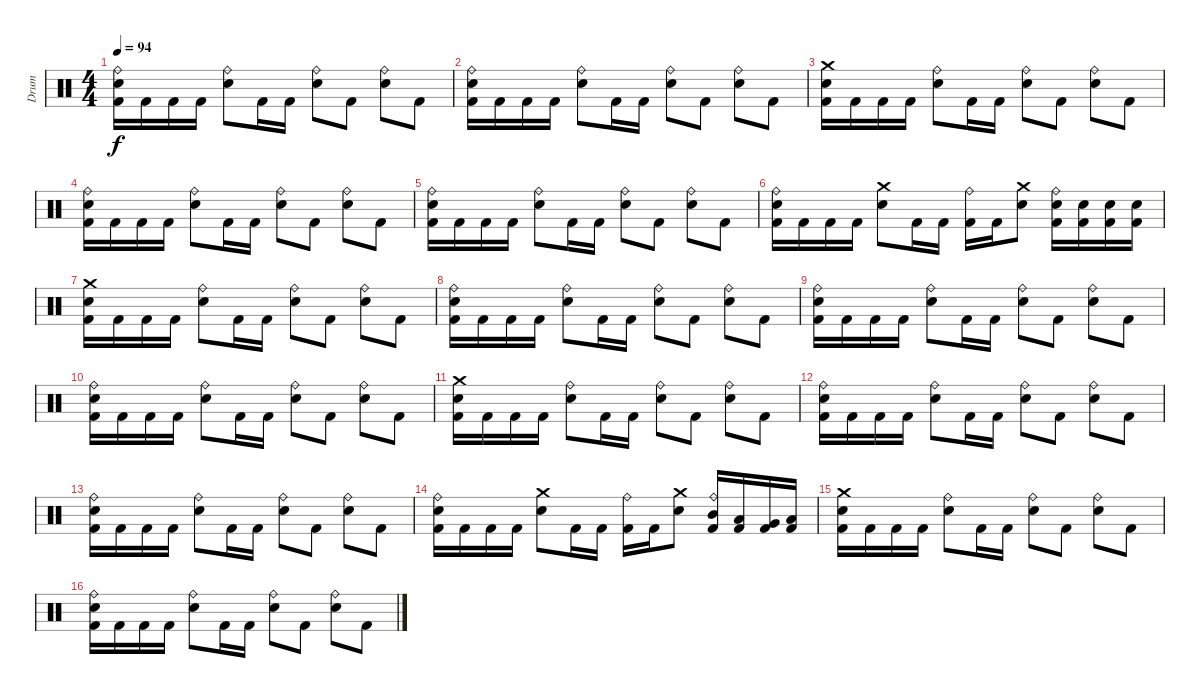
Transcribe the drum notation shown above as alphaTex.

\track ("Drum" "Drum") {instrument percussion}
\staff {score}
\articulation defaults
\ts (4 4)
\tempo 94
\clef neutral
\ks c
("Kick (hit) 2" "Electric Snare (hit)" "Ride (bell)").16{dy f} "Kick (hit) 2".16 "Kick (hit) 2".16 "Kick (hit) 2".16 ("Electric Snare (hit)" "Ride (bell)").8 "Kick (hit) 2".16 "Kick (hit) 2".16 ("Electric Snare (hit)" "Ride (bell)").8 "Kick (hit) 2".8 ("Electric Snare (hit)" "Ride (bell)").8 "Kick (hit) 2".8 |
("Kick (hit) 2" "Electric Snare (hit)" "Ride (bell)").16 "Kick (hit) 2".16 "Kick (hit) 2".16 "Kick (hit) 2".16 ("Electric Snare (hit)" "Ride (bell)").8 "Kick (hit) 2".16 "Kick (hit) 2".16 ("Electric Snare (hit)" "Ride (bell)").8 "Kick (hit) 2".8 ("Electric Snare (hit)" "Ride (bell)").8 "Kick (hit) 2".8 |
("Kick (hit) 2" "Electric Snare (hit)" "Crash medium (hit)").16 "Kick (hit) 2".16 "Kick (hit) 2".16 "Kick (hit) 2".16 ("Electric Snare (hit)" "Ride (bell)").8 "Kick (hit) 2".16 "Kick (hit) 2".16 ("Electric Snare (hit)" "Ride (bell)").8 "Kick (hit) 2".8 ("Electric Snare (hit)" "Ride (bell)").8 "Kick (hit) 2".8 |
("Kick (hit) 2" "Electric Snare (hit)" "Ride (bell)").16 "Kick (hit) 2".16 "Kick (hit) 2".16 "Kick (hit) 2".16 ("Electric Snare (hit)" "Ride (bell)").8 "Kick (hit) 2".16 "Kick (hit) 2".16 ("Electric Snare (hit)" "Ride (bell)").8 "Kick (hit) 2".8 ("Electric Snare (hit)" "Ride (bell)").8 "Kick (hit) 2".8 |
("Kick (hit) 2" "Electric Snare (hit)" "Ride (bell)").16 "Kick (hit) 2".16 "Kick (hit) 2".16 "Kick (hit) 2".16 ("Electric Snare (hit)" "Ride (bell)").8 "Kick (hit) 2".16 "Kick (hit) 2".16 ("Electric Snare (hit)" "Ride (bell)").8 "Kick (hit) 2".8 ("Electric Snare (hit)" "Ride (bell)").8 "Kick (hit) 2".8 |
("Kick (hit) 2" "Electric Snare (hit)" "Ride (bell)").16 "Kick (hit) 2".16 "Kick (hit) 2".16 "Kick (hit) 2".16 ("Electric Snare (hit)" "Crash medium (hit)").8 "Kick (hit) 2".16 "Kick (hit) 2".16 ("Kick (hit) 2" "Ride (bell)").16 "Kick (hit) 2".16 ("Electric Snare (hit)" "Crash medium (hit)").8 ("Kick (hit) 2" "Electric Snare (hit)" "Ride (bell)").16 ("Kick (hit) 2" "Electric Snare (hit)").16 ("Kick (hit) 2" "Electric Snare (hit)").16 ("Kick (hit) 2" "Electric Snare (hit)").16 |
("Kick (hit) 2" "Electric Snare (hit)" "Crash medium (hit)").16 "Kick (hit) 2".16 "Kick (hit) 2".16 "Kick (hit) 2".16 ("Electric Snare (hit)" "Ride (bell)").8 "Kick (hit) 2".16 "Kick (hit) 2".16 ("Electric Snare (hit)" "Ride (bell)").8 "Kick (hit) 2".8 ("Electric Snare (hit)" "Ride (bell)").8 "Kick (hit) 2".8 |
("Kick (hit) 2" "Electric Snare (hit)" "Ride (bell)").16 "Kick (hit) 2".16 "Kick (hit) 2".16 "Kick (hit) 2".16 ("Electric Snare (hit)" "Ride (bell)").8 "Kick (hit) 2".16 "Kick (hit) 2".16 ("Electric Snare (hit)" "Ride (bell)").8 "Kick (hit) 2".8 ("Electric Snare (hit)" "Ride (bell)").8 "Kick (hit) 2".8 |
("Kick (hit) 2" "Electric Snare (hit)" "Ride (bell)").16 "Kick (hit) 2".16 "Kick (hit) 2".16 "Kick (hit) 2".16 ("Electric Snare (hit)" "Ride (bell)").8 "Kick (hit) 2".16 "Kick (hit) 2".16 ("Electric Snare (hit)" "Ride (bell)").8 "Kick (hit) 2".8 ("Electric Snare (hit)" "Ride (bell)").8 "Kick (hit) 2".8 |
("Kick (hit) 2" "Electric Snare (hit)" "Ride (bell)").16 "Kick (hit) 2".16 "Kick (hit) 2".16 "Kick (hit) 2".16 ("Electric Snare (hit)" "Ride (bell)").8 "Kick (hit) 2".16 "Kick (hit) 2".16 ("Electric Snare (hit)" "Ride (bell)").8 "Kick (hit) 2".8 ("Electric Snare (hit)" "Ride (bell)").8 "Kick (hit) 2".8 |
("Kick (hit) 2" "Electric Snare (hit)" "Crash medium (hit)").16 "Kick (hit) 2".16 "Kick (hit) 2".16 "Kick (hit) 2".16 ("Electric Snare (hit)" "Ride (bell)").8 "Kick (hit) 2".16 "Kick (hit) 2".16 ("Electric Snare (hit)" "Ride (bell)").8 "Kick (hit) 2".8 ("Electric Snare (hit)" "Ride (bell)").8 "Kick (hit) 2".8 |
("Kick (hit) 2" "Electric Snare (hit)" "Ride (bell)").16 "Kick (hit) 2".16 "Kick (hit) 2".16 "Kick (hit) 2".16 ("Electric Snare (hit)" "Ride (bell)").8 "Kick (hit) 2".16 "Kick (hit) 2".16 ("Electric Snare (hit)" "Ride (bell)").8 "Kick (hit) 2".8 ("Electric Snare (hit)" "Ride (bell)").8 "Kick (hit) 2".8 |
("Kick (hit) 2" "Electric Snare (hit)" "Ride (bell)").16 "Kick (hit) 2".16 "Kick (hit) 2".16 "Kick (hit) 2".16 ("Electric Snare (hit)" "Ride (bell)").8 "Kick (hit) 2".16 "Kick (hit) 2".16 ("Electric Snare (hit)" "Ride (bell)").8 "Kick (hit) 2".8 ("Electric Snare (hit)" "Ride (bell)").8 "Kick (hit) 2".8 |
("Kick (hit) 2" "Electric Snare (hit)" "Ride (bell)").16 "Kick (hit) 2".16 "Kick (hit) 2".16 "Kick (hit) 2".16 ("Electric Snare (hit)" "Crash medium (hit)").8 "Kick (hit) 2".16 "Kick (hit) 2".16 ("Kick (hit) 2" "Ride (bell)").16 "Kick (hit) 2".16 ("Electric Snare (hit)" "Crash medium (hit)").8 ("Kick (hit) 2" "Mid Tom (hit)" "Ride (bell)").16 ("Kick (hit) 2" "Low Tom (hit)").16 ("Kick (hit) 2" "Very Low Tom (hit)").16 ("Kick (hit) 2" "Low Floor Tom (hit)").16 |
("Kick (hit) 2" "Electric Snare (hit)" "Crash medium (hit)").16 "Kick (hit) 2".16 "Kick (hit) 2".16 "Kick (hit) 2".16 ("Electric Snare (hit)" "Ride (bell)").8 "Kick (hit) 2".16 "Kick (hit) 2".16 ("Electric Snare (hit)" "Ride (bell)").8 "Kick (hit) 2".8 ("Electric Snare (hit)" "Ride (bell)").8 "Kick (hit) 2".8 |
("Kick (hit) 2" "Electric Snare (hit)" "Ride (bell)").16 "Kick (hit) 2".16 "Kick (hit) 2".16 "Kick (hit) 2".16 ("Electric Snare (hit)" "Ride (bell)").8 "Kick (hit) 2".16 "Kick (hit) 2".16 ("Electric Snare (hit)" "Ride (bell)").8 "Kick (hit) 2".8 ("Electric Snare (hit)" "Ride (bell)").8 "Kick (hit) 2".8
